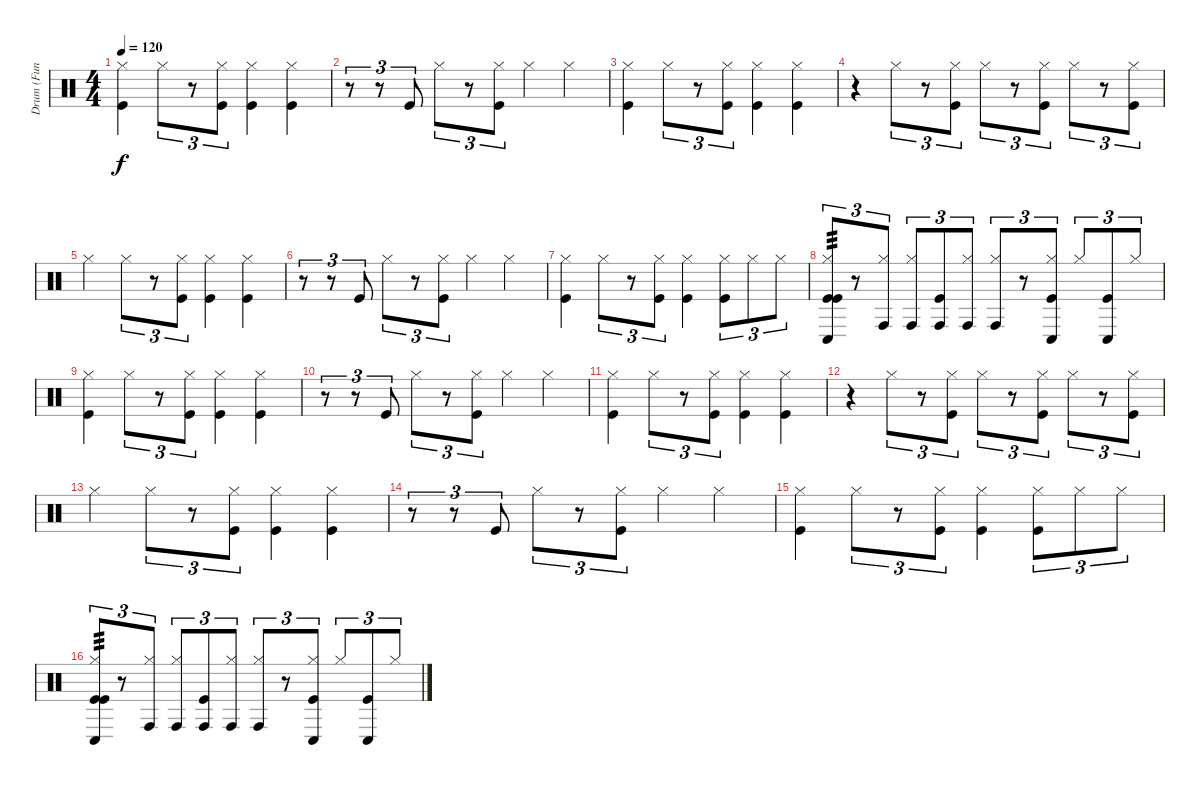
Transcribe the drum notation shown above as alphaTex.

\track ("Drum (Fun Track)" "Drum (Fun ") {instrument percussion}
\staff {score}
\articulation defaults
\ts (4 4)
\tempo 120
\clef neutral
\ks c
("Hi-Hat (closed)" "Kick (hit)").4{dy f} "Hi-Hat (closed)".8{tu (3 2)} r.8{tu (3 2)} ("Hi-Hat (closed)" "Kick (hit)").8{tu (3 2)} ("Hi-Hat (closed)" "Kick (hit)").4 ("Hi-Hat (closed)" "Kick (hit)").4 |
r.8{tu (3 2)} r.8{tu (3 2)} "Kick (hit)".8{tu (3 2)} "Hi-Hat (closed)".8{tu (3 2)} r.8{tu (3 2)} ("Hi-Hat (closed)" "Kick (hit)").8{tu (3 2)} "Hi-Hat (closed)".4 "Hi-Hat (closed)".4 |
("Hi-Hat (closed)" "Kick (hit)").4 "Hi-Hat (closed)".8{tu (3 2)} r.8{tu (3 2)} ("Hi-Hat (closed)" "Kick (hit)").8{tu (3 2)} ("Hi-Hat (closed)" "Kick (hit)").4 ("Hi-Hat (closed)" "Kick (hit)").4 |
r.4 "Hi-Hat (closed)".8{tu (3 2)} r.8{tu (3 2)} ("Hi-Hat (closed)" "Kick (hit)").8{tu (3 2)} "Hi-Hat (closed)".8{tu (3 2)} r.8{tu (3 2)} ("Hi-Hat (closed)" "Kick (hit)").8{tu (3 2)} "Hi-Hat (closed)".8{tu (3 2)} r.8{tu (3 2)} ("Hi-Hat (closed)" "Kick (hit)").8{tu (3 2)} |
"Hi-Hat (closed)".4 "Hi-Hat (closed)".8{tu (3 2)} r.8{tu (3 2)} ("Hi-Hat (closed)" "Kick (hit)").8{tu (3 2)} ("Hi-Hat (closed)" "Kick (hit)").4 ("Hi-Hat (closed)" "Kick (hit)").4 |
r.8{tu (3 2)} r.8{tu (3 2)} "Kick (hit)".8{tu (3 2)} "Hi-Hat (closed)".8{tu (3 2)} r.8{tu (3 2)} ("Hi-Hat (closed)" "Kick (hit)").8{tu (3 2)} "Hi-Hat (closed)".4 "Hi-Hat (closed)".4 |
("Hi-Hat (closed)" "Kick (hit)").4 "Hi-Hat (closed)".8{tu (3 2)} r.8{tu (3 2)} ("Hi-Hat (closed)" "Kick (hit)").8{tu (3 2)} ("Hi-Hat (closed)" "Kick (hit)").4 ("Hi-Hat (closed)" "Kick (hit)").8{tu (3 2)} "Hi-Hat (closed)".8{tu (3 2)} "Hi-Hat (closed)".8{tu (3 2)} |
("Hi-Hat (closed)" "Conga low (hit)" "Kick (hit)" "Kick (hit)").8{tu (3 2) tp 3} r.8{tu (3 2)} ("Hi-Hat (closed)" "Conga high (hit)").8{tu (3 2)} ("Hi-Hat (closed)" "Conga high (hit)").8{tu (3 2)} ("Conga high (hit)" "Kick (hit)").8{tu (3 2)} ("Hi-Hat (closed)" "Conga high (hit)").8{tu (3 2)} ("Hi-Hat (closed)" "Conga high (hit)").8{tu (3 2)} r.8{tu (3 2)} ("Hi-Hat (closed)" "Kick (hit)" "Conga low (hit)").8{tu (3 2)} "Hi-Hat (closed)".8{tu (3 2)} ("Kick (hit)" "Conga low (hit)").8{tu (3 2)} "Hi-Hat (closed)".8{tu (3 2)} |
("Hi-Hat (closed)" "Kick (hit)").4 "Hi-Hat (closed)".8{tu (3 2)} r.8{tu (3 2)} ("Hi-Hat (closed)" "Kick (hit)").8{tu (3 2)} ("Hi-Hat (closed)" "Kick (hit)").4 ("Hi-Hat (closed)" "Kick (hit)").4 |
r.8{tu (3 2)} r.8{tu (3 2)} "Kick (hit)".8{tu (3 2)} "Hi-Hat (closed)".8{tu (3 2)} r.8{tu (3 2)} ("Hi-Hat (closed)" "Kick (hit)").8{tu (3 2)} "Hi-Hat (closed)".4 "Hi-Hat (closed)".4 |
("Hi-Hat (closed)" "Kick (hit)").4 "Hi-Hat (closed)".8{tu (3 2)} r.8{tu (3 2)} ("Hi-Hat (closed)" "Kick (hit)").8{tu (3 2)} ("Hi-Hat (closed)" "Kick (hit)").4 ("Hi-Hat (closed)" "Kick (hit)").4 |
r.4 "Hi-Hat (closed)".8{tu (3 2)} r.8{tu (3 2)} ("Hi-Hat (closed)" "Kick (hit)").8{tu (3 2)} "Hi-Hat (closed)".8{tu (3 2)} r.8{tu (3 2)} ("Hi-Hat (closed)" "Kick (hit)").8{tu (3 2)} "Hi-Hat (closed)".8{tu (3 2)} r.8{tu (3 2)} ("Hi-Hat (closed)" "Kick (hit)").8{tu (3 2)} |
"Hi-Hat (closed)".4 "Hi-Hat (closed)".8{tu (3 2)} r.8{tu (3 2)} ("Hi-Hat (closed)" "Kick (hit)").8{tu (3 2)} ("Hi-Hat (closed)" "Kick (hit)").4 ("Hi-Hat (closed)" "Kick (hit)").4 |
r.8{tu (3 2)} r.8{tu (3 2)} "Kick (hit)".8{tu (3 2)} "Hi-Hat (closed)".8{tu (3 2)} r.8{tu (3 2)} ("Hi-Hat (closed)" "Kick (hit)").8{tu (3 2)} "Hi-Hat (closed)".4 "Hi-Hat (closed)".4 |
("Hi-Hat (closed)" "Kick (hit)").4 "Hi-Hat (closed)".8{tu (3 2)} r.8{tu (3 2)} ("Hi-Hat (closed)" "Kick (hit)").8{tu (3 2)} ("Hi-Hat (closed)" "Kick (hit)").4 ("Hi-Hat (closed)" "Kick (hit)").8{tu (3 2)} "Hi-Hat (closed)".8{tu (3 2)} "Hi-Hat (closed)".8{tu (3 2)} |
("Hi-Hat (closed)" "Conga low (hit)" "Kick (hit)" "Kick (hit)").8{tu (3 2) tp 3} r.8{tu (3 2)} ("Hi-Hat (closed)" "Conga high (hit)").8{tu (3 2)} ("Hi-Hat (closed)" "Conga high (hit)").8{tu (3 2)} ("Conga high (hit)" "Kick (hit)").8{tu (3 2)} ("Hi-Hat (closed)" "Conga high (hit)").8{tu (3 2)} ("Hi-Hat (closed)" "Conga high (hit)").8{tu (3 2)} r.8{tu (3 2)} ("Hi-Hat (closed)" "Kick (hit)" "Conga low (hit)").8{tu (3 2)} "Hi-Hat (closed)".8{tu (3 2)} ("Kick (hit)" "Conga low (hit)").8{tu (3 2)} "Hi-Hat (closed)".8{tu (3 2)}
